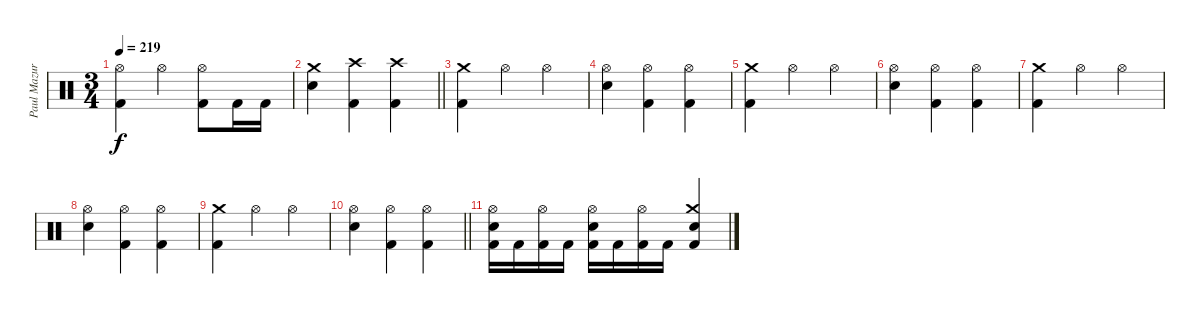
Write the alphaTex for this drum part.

\track ("Paul Mazurkiewicz" "Paul Mazur") {instrument percussion}
\staff {score}
\articulation defaults
\ts (3 4)
\tempo 219
\clef neutral
\ks c
("Hi-Hat (open)" "Kick (hit) 2").4{dy f} "Hi-Hat (open)".4 ("Hi-Hat (open)" "Kick (hit) 2").8 "Kick (hit) 2".16 "Kick (hit) 2".16 |
\barLineRight lightlight
("Crash medium (hit)" "Electric Snare (hit)").4 ("Crash high (hit)" "Kick (hit) 2").4 ("Crash high (hit)" "Kick (hit) 2").4 |
("Crash medium (hit)" "Kick (hit) 2").4 "Hi-Hat (open)".4 "Hi-Hat (open)".4 |
("Hi-Hat (open)" "Electric Snare (hit)").4 ("Hi-Hat (open)" "Kick (hit) 2").4 ("Hi-Hat (open)" "Kick (hit) 2").4 |
("Crash medium (hit)" "Kick (hit) 2").4 "Hi-Hat (open)".4 "Hi-Hat (open)".4 |
("Hi-Hat (open)" "Electric Snare (hit)").4 ("Hi-Hat (open)" "Kick (hit) 2").4 ("Hi-Hat (open)" "Kick (hit) 2").4 |
("Crash medium (hit)" "Kick (hit) 2").4 "Hi-Hat (open)".4 "Hi-Hat (open)".4 |
("Hi-Hat (open)" "Electric Snare (hit)").4 ("Hi-Hat (open)" "Kick (hit) 2").4 ("Hi-Hat (open)" "Kick (hit) 2").4 |
("Crash medium (hit)" "Kick (hit) 2").4 "Hi-Hat (open)".4 "Hi-Hat (open)".4 |
\barLineRight lightlight
("Hi-Hat (open)" "Electric Snare (hit)").4 ("Hi-Hat (open)" "Kick (hit) 2").4 ("Hi-Hat (open)" "Kick (hit) 2").4 |
("Hi-Hat (open)" "Electric Snare (hit)" "Kick (hit) 2").16 "Kick (hit) 2".16 ("Hi-Hat (open)" "Kick (hit) 2").16 "Kick (hit) 2".16 ("Hi-Hat (open)" "Electric Snare (hit)" "Kick (hit) 2").16 "Kick (hit) 2".16 ("Hi-Hat (open)" "Kick (hit) 2").16 "Kick (hit) 2".16 ("Crash medium (hit)" "Electric Snare (hit)" "Kick (hit) 2").4
